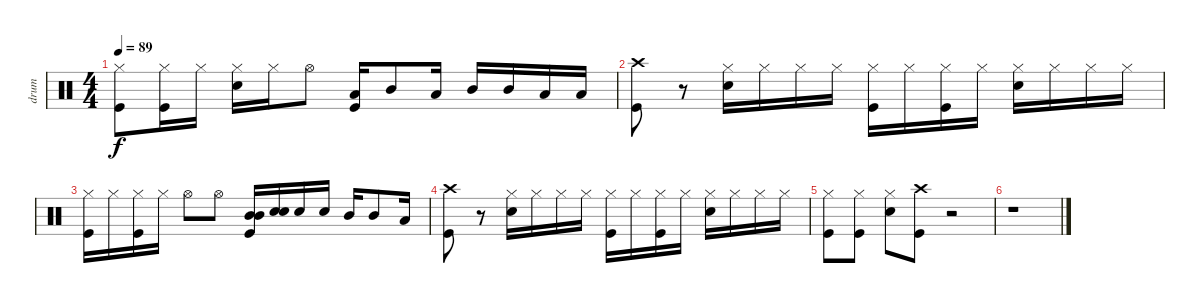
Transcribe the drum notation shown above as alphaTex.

\track ("drum" "drum") {instrument percussion}
\staff {score}
\articulation defaults
\ts (4 4)
\tempo 89
\clef neutral
\ks c
("Hi-Hat (closed)" "Kick (hit)").8{dy f} ("Hi-Hat (closed)" "Kick (hit)").16 "Hi-Hat (closed)".16 ("Hi-Hat (closed)" "Snare (hit) 2").16 "Hi-Hat (closed)".16 "Hi-Hat (open)".8 ("Low Floor Tom (hit)" "Kick (hit)").16 "Mid Tom (hit)".8 "Low Tom (hit)".16 "Mid Tom (hit)".16 "Mid Tom (hit)".16 "Low Floor Tom (hit)".16 "Low Floor Tom (hit)".16 |
("Crash high (hit)" "Kick (hit)").8 r.8 ("Hi-Hat (closed)" "Snare (hit) 2").16 "Hi-Hat (closed)".16 "Hi-Hat (closed)".16 "Hi-Hat (closed)".16 ("Hi-Hat (closed)" "Kick (hit)").16 "Hi-Hat (closed)".16 ("Hi-Hat (closed)" "Kick (hit)").16 "Hi-Hat (closed)".16 ("Hi-Hat (closed)" "Snare (hit) 2").16 "Hi-Hat (closed)".16 "Hi-Hat (closed)".16 "Hi-Hat (closed)".16 |
("Kick (hit)" "Hi-Hat (closed)").16 "Hi-Hat (closed)".16 ("Hi-Hat (closed)" "Kick (hit)").16 "Hi-Hat (closed)".16 "Hi-Hat (open)".8 "Hi-Hat (open)".8 ("Mid Tom (hit)" "Kick (hit)" "Mid Tom (hit)").16 ("Snare (hit) 2" "Snare (hit) 2").16 "Snare (hit) 2".16 "Snare (hit) 2".16 "Mid Tom (hit)".16 "Mid Tom (hit)".8 "Low Tom (hit)".16 |
("Crash high (hit)" "Kick (hit)").8 r.8 ("Hi-Hat (closed)" "Snare (hit) 2").16 "Hi-Hat (closed)".16 "Hi-Hat (closed)".16 "Hi-Hat (closed)".16 ("Hi-Hat (closed)" "Kick (hit)").16 "Hi-Hat (closed)".16 ("Hi-Hat (closed)" "Kick (hit)").16 "Hi-Hat (closed)".16 ("Hi-Hat (closed)" "Snare (hit) 2").16 "Hi-Hat (closed)".16 "Hi-Hat (closed)".16 "Hi-Hat (closed)".16 |
("Kick (hit)" "Hi-Hat (closed)").8 ("Kick (hit)" "Hi-Hat (closed)").8 ("Snare (hit) 2" "Hi-Hat (closed)").8 ("Kick (hit)" "Crash high (hit)").8 r.2 |
r.1
